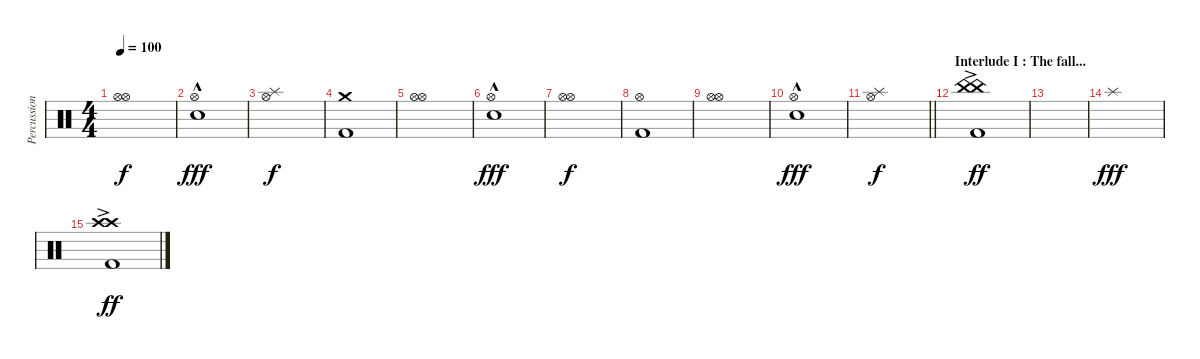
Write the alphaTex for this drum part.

\track ("Percussion" "Percussion") {instrument percussion}
\staff {score}
\articulation defaults
\ts (4 4)
\tempo 100
\clef neutral
\ks c
("Hi-Hat (open)" "Hi-Hat (open)").1{dy f} |
("Hi-Hat (open)" "Snare (hit) 2"{hac}).1{dy fff} |
("Hi-Hat (open)" "Splash (hit)").1{dy f} |
("Crash medium (hit)" "Kick (hit) 2").1 |
("Hi-Hat (open)" "Hi-Hat (open)").1 |
("Hi-Hat (open)" "Snare (hit) 2"{hac}).1{dy fff} |
("Hi-Hat (open)" "Hi-Hat (open)").1{dy f} |
("Hi-Hat (open)" "Kick (hit) 2").1 |
("Hi-Hat (open)" "Hi-Hat (open)").1 |
("Hi-Hat (open)" "Snare (hit) 2"{hac}).1{dy fff} |
\barLineRight lightlight
("Hi-Hat (open)" "Splash (hit)").1{dy f} |
\section ("" "Interlude I : The fall...")
("China (hit)"{ac} "China (hit)" "Kick (hit) 2"{ac}).1{dy ff} |
|
"Splash (hit)".1{dy fff} |
("Crash high (hit)"{ac} "Crash high (hit)" "Kick (hit) 2"{ac}).1{dy ff}
